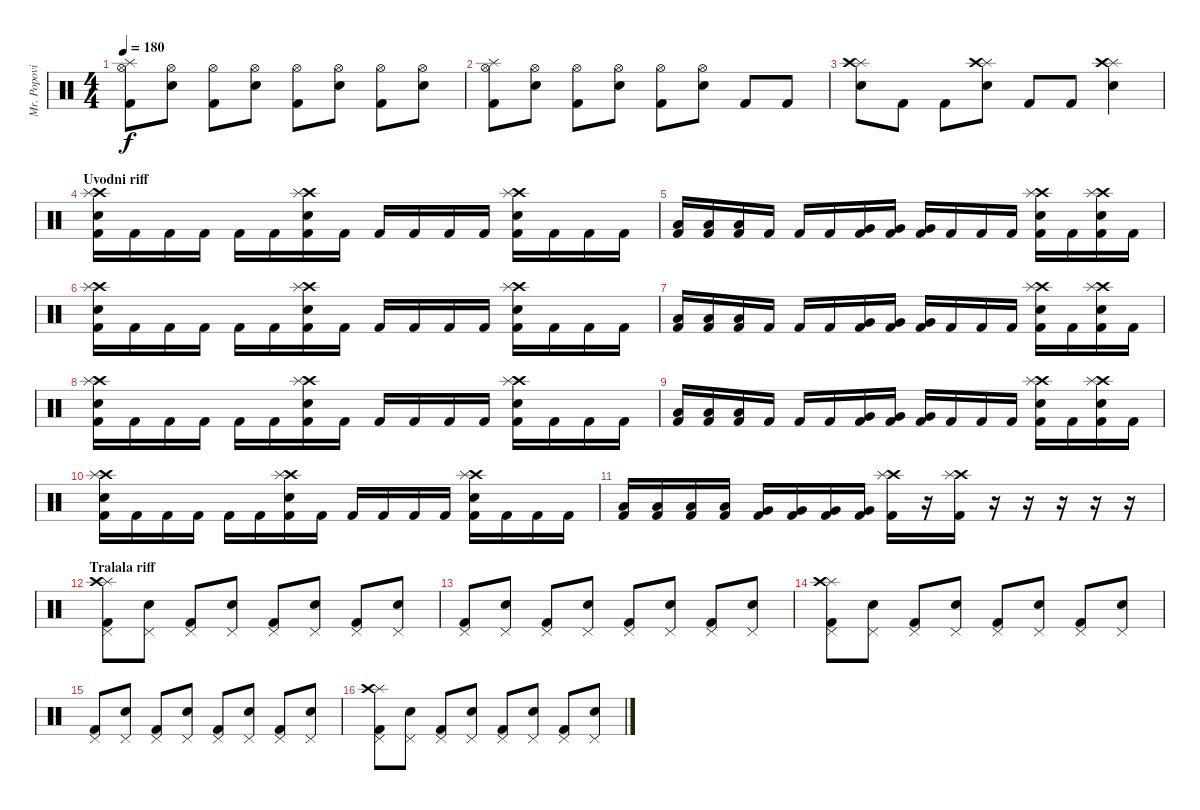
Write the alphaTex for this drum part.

\track ("Mr. Popovic" "Mr. Popovi") {instrument percussion}
\staff {score}
\articulation defaults
\ts (4 4)
\tempo 180
\clef neutral
\ks c
("Splash (hit)" "Hi-Hat (open)" "Kick (hit) 2").8{dy f} ("Hi-Hat (open)" "Electric Snare (hit)").8 ("Hi-Hat (open)" "Kick (hit) 2").8 ("Hi-Hat (open)" "Electric Snare (hit)").8 ("Hi-Hat (open)" "Kick (hit) 2").8 ("Hi-Hat (open)" "Electric Snare (hit)").8 ("Hi-Hat (open)" "Kick (hit) 2").8 ("Hi-Hat (open)" "Electric Snare (hit)").8 |
("Splash (hit)" "Hi-Hat (open)" "Kick (hit) 2").8 ("Hi-Hat (open)" "Electric Snare (hit)").8 ("Hi-Hat (open)" "Kick (hit) 2").8 ("Hi-Hat (open)" "Electric Snare (hit)").8 ("Hi-Hat (open)" "Kick (hit) 2").8 ("Hi-Hat (open)" "Electric Snare (hit)").8 "Kick (hit) 2".8 "Kick (hit) 2".8 |
("Splash (hit)" "Crash high (hit)" "Electric Snare (hit)").8 "Kick (hit) 2".8 "Kick (hit) 2".8 ("Splash (hit)" "Crash high (hit)" "Electric Snare (hit)").8 "Kick (hit) 2".8 "Kick (hit) 2".8 ("Splash (hit)" "Crash high (hit)" "Electric Snare (hit)").4 |
\section ("" "Uvodni riff")
("Crash high (hit)" "Splash (hit)" "Electric Snare (hit)" "Kick (hit) 2").16 "Kick (hit) 2".16 "Kick (hit) 2".16 "Kick (hit) 2".16 "Kick (hit) 2".16 "Kick (hit) 2".16 ("Crash high (hit)" "Splash (hit)" "Electric Snare (hit)" "Kick (hit) 2").16 "Kick (hit) 2".16 "Kick (hit) 2".16 "Kick (hit) 2".16 "Kick (hit) 2".16 "Kick (hit) 2".16 ("Crash high (hit)" "Splash (hit)" "Electric Snare (hit)" "Kick (hit) 2").16 "Kick (hit) 2".16 "Kick (hit) 2".16 "Kick (hit) 2".16 |
("Low Tom (hit)" "Kick (hit) 2").16 ("Low Tom (hit)" "Kick (hit) 2").16 ("Low Tom (hit)" "Kick (hit) 2").16 "Kick (hit) 2".16 "Kick (hit) 2".16 "Kick (hit) 2".16 ("Very Low Tom (hit)" "Kick (hit) 2").16 ("Very Low Tom (hit)" "Kick (hit) 2").16 ("Very Low Tom (hit)" "Kick (hit) 2").16 "Kick (hit) 2".16 "Kick (hit) 2".16 "Kick (hit) 2".16 ("Crash high (hit)" "Splash (hit)" "Electric Snare (hit)" "Kick (hit) 2").16 "Kick (hit) 2".16 ("Crash high (hit)" "Splash (hit)" "Electric Snare (hit)" "Kick (hit) 2").16 "Kick (hit) 2".16 |
("Crash high (hit)" "Splash (hit)" "Electric Snare (hit)" "Kick (hit) 2").16 "Kick (hit) 2".16 "Kick (hit) 2".16 "Kick (hit) 2".16 "Kick (hit) 2".16 "Kick (hit) 2".16 ("Crash high (hit)" "Splash (hit)" "Electric Snare (hit)" "Kick (hit) 2").16 "Kick (hit) 2".16 "Kick (hit) 2".16 "Kick (hit) 2".16 "Kick (hit) 2".16 "Kick (hit) 2".16 ("Crash high (hit)" "Splash (hit)" "Electric Snare (hit)" "Kick (hit) 2").16 "Kick (hit) 2".16 "Kick (hit) 2".16 "Kick (hit) 2".16 |
("Low Tom (hit)" "Kick (hit) 2").16 ("Low Tom (hit)" "Kick (hit) 2").16 ("Low Tom (hit)" "Kick (hit) 2").16 "Kick (hit) 2".16 "Kick (hit) 2".16 "Kick (hit) 2".16 ("Very Low Tom (hit)" "Kick (hit) 2").16 ("Very Low Tom (hit)" "Kick (hit) 2").16 ("Very Low Tom (hit)" "Kick (hit) 2").16 "Kick (hit) 2".16 "Kick (hit) 2".16 "Kick (hit) 2".16 ("Crash high (hit)" "Splash (hit)" "Electric Snare (hit)" "Kick (hit) 2").16 "Kick (hit) 2".16 ("Crash high (hit)" "Splash (hit)" "Electric Snare (hit)" "Kick (hit) 2").16 "Kick (hit) 2".16 |
("Crash high (hit)" "Splash (hit)" "Electric Snare (hit)" "Kick (hit) 2").16 "Kick (hit) 2".16 "Kick (hit) 2".16 "Kick (hit) 2".16 "Kick (hit) 2".16 "Kick (hit) 2".16 ("Crash high (hit)" "Splash (hit)" "Electric Snare (hit)" "Kick (hit) 2").16 "Kick (hit) 2".16 "Kick (hit) 2".16 "Kick (hit) 2".16 "Kick (hit) 2".16 "Kick (hit) 2".16 ("Crash high (hit)" "Splash (hit)" "Electric Snare (hit)" "Kick (hit) 2").16 "Kick (hit) 2".16 "Kick (hit) 2".16 "Kick (hit) 2".16 |
("Low Tom (hit)" "Kick (hit) 2").16 ("Low Tom (hit)" "Kick (hit) 2").16 ("Low Tom (hit)" "Kick (hit) 2").16 "Kick (hit) 2".16 "Kick (hit) 2".16 "Kick (hit) 2".16 ("Very Low Tom (hit)" "Kick (hit) 2").16 ("Very Low Tom (hit)" "Kick (hit) 2").16 ("Very Low Tom (hit)" "Kick (hit) 2").16 "Kick (hit) 2".16 "Kick (hit) 2".16 "Kick (hit) 2".16 ("Crash high (hit)" "Splash (hit)" "Electric Snare (hit)" "Kick (hit) 2").16 "Kick (hit) 2".16 ("Crash high (hit)" "Splash (hit)" "Electric Snare (hit)" "Kick (hit) 2").16 "Kick (hit) 2".16 |
("Crash high (hit)" "Splash (hit)" "Electric Snare (hit)" "Kick (hit) 2").16 "Kick (hit) 2".16 "Kick (hit) 2".16 "Kick (hit) 2".16 "Kick (hit) 2".16 "Kick (hit) 2".16 ("Crash high (hit)" "Splash (hit)" "Electric Snare (hit)" "Kick (hit) 2").16 "Kick (hit) 2".16 "Kick (hit) 2".16 "Kick (hit) 2".16 "Kick (hit) 2".16 "Kick (hit) 2".16 ("Crash high (hit)" "Splash (hit)" "Electric Snare (hit)" "Kick (hit) 2").16 "Kick (hit) 2".16 "Kick (hit) 2".16 "Kick (hit) 2".16 |
("Low Tom (hit)" "Kick (hit) 2").16 ("Low Tom (hit)" "Kick (hit) 2").16 ("Low Tom (hit)" "Kick (hit) 2").16 ("Low Tom (hit)" "Kick (hit) 2").16 ("Very Low Tom (hit)" "Kick (hit) 2").16 ("Very Low Tom (hit)" "Kick (hit) 2").16 ("Very Low Tom (hit)" "Kick (hit) 2").16 ("Very Low Tom (hit)" "Kick (hit) 2").16 ("Crash high (hit)" "Splash (hit)" "Kick (hit) 2").16 r.16 ("Crash high (hit)" "Splash (hit)" "Kick (hit) 2").16 r.16 r.16 r.16 r.16 r.16 |
\section ("" "Tralala riff")
("Splash (hit)" "Crash high (hit)" "Pedal Hi-Hat (hit)" "Kick (hit) 2").8 ("Pedal Hi-Hat (hit)" "Electric Snare (hit)").8 ("Pedal Hi-Hat (hit)" "Kick (hit) 2").8 ("Pedal Hi-Hat (hit)" "Electric Snare (hit)").8 ("Pedal Hi-Hat (hit)" "Kick (hit) 2").8 ("Pedal Hi-Hat (hit)" "Electric Snare (hit)").8 ("Pedal Hi-Hat (hit)" "Kick (hit) 2").8 ("Pedal Hi-Hat (hit)" "Electric Snare (hit)").8 |
("Pedal Hi-Hat (hit)" "Kick (hit) 2").8 ("Pedal Hi-Hat (hit)" "Electric Snare (hit)").8 ("Pedal Hi-Hat (hit)" "Kick (hit) 2").8 ("Pedal Hi-Hat (hit)" "Electric Snare (hit)").8 ("Pedal Hi-Hat (hit)" "Kick (hit) 2").8 ("Pedal Hi-Hat (hit)" "Electric Snare (hit)").8 ("Pedal Hi-Hat (hit)" "Kick (hit) 2").8 ("Pedal Hi-Hat (hit)" "Electric Snare (hit)").8 |
("Splash (hit)" "Crash high (hit)" "Pedal Hi-Hat (hit)" "Kick (hit) 2").8 ("Pedal Hi-Hat (hit)" "Electric Snare (hit)").8 ("Pedal Hi-Hat (hit)" "Kick (hit) 2").8 ("Pedal Hi-Hat (hit)" "Electric Snare (hit)").8 ("Pedal Hi-Hat (hit)" "Kick (hit) 2").8 ("Pedal Hi-Hat (hit)" "Electric Snare (hit)").8 ("Pedal Hi-Hat (hit)" "Kick (hit) 2").8 ("Pedal Hi-Hat (hit)" "Electric Snare (hit)").8 |
("Pedal Hi-Hat (hit)" "Kick (hit) 2").8 ("Pedal Hi-Hat (hit)" "Electric Snare (hit)").8 ("Pedal Hi-Hat (hit)" "Kick (hit) 2").8 ("Pedal Hi-Hat (hit)" "Electric Snare (hit)").8 ("Pedal Hi-Hat (hit)" "Kick (hit) 2").8 ("Pedal Hi-Hat (hit)" "Electric Snare (hit)").8 ("Pedal Hi-Hat (hit)" "Kick (hit) 2").8 ("Pedal Hi-Hat (hit)" "Electric Snare (hit)").8 |
("Splash (hit)" "Crash high (hit)" "Pedal Hi-Hat (hit)" "Kick (hit) 2").8 ("Pedal Hi-Hat (hit)" "Electric Snare (hit)").8 ("Pedal Hi-Hat (hit)" "Kick (hit) 2").8 ("Pedal Hi-Hat (hit)" "Electric Snare (hit)").8 ("Pedal Hi-Hat (hit)" "Kick (hit) 2").8 ("Pedal Hi-Hat (hit)" "Electric Snare (hit)").8 ("Pedal Hi-Hat (hit)" "Kick (hit) 2").8 ("Pedal Hi-Hat (hit)" "Electric Snare (hit)").8
